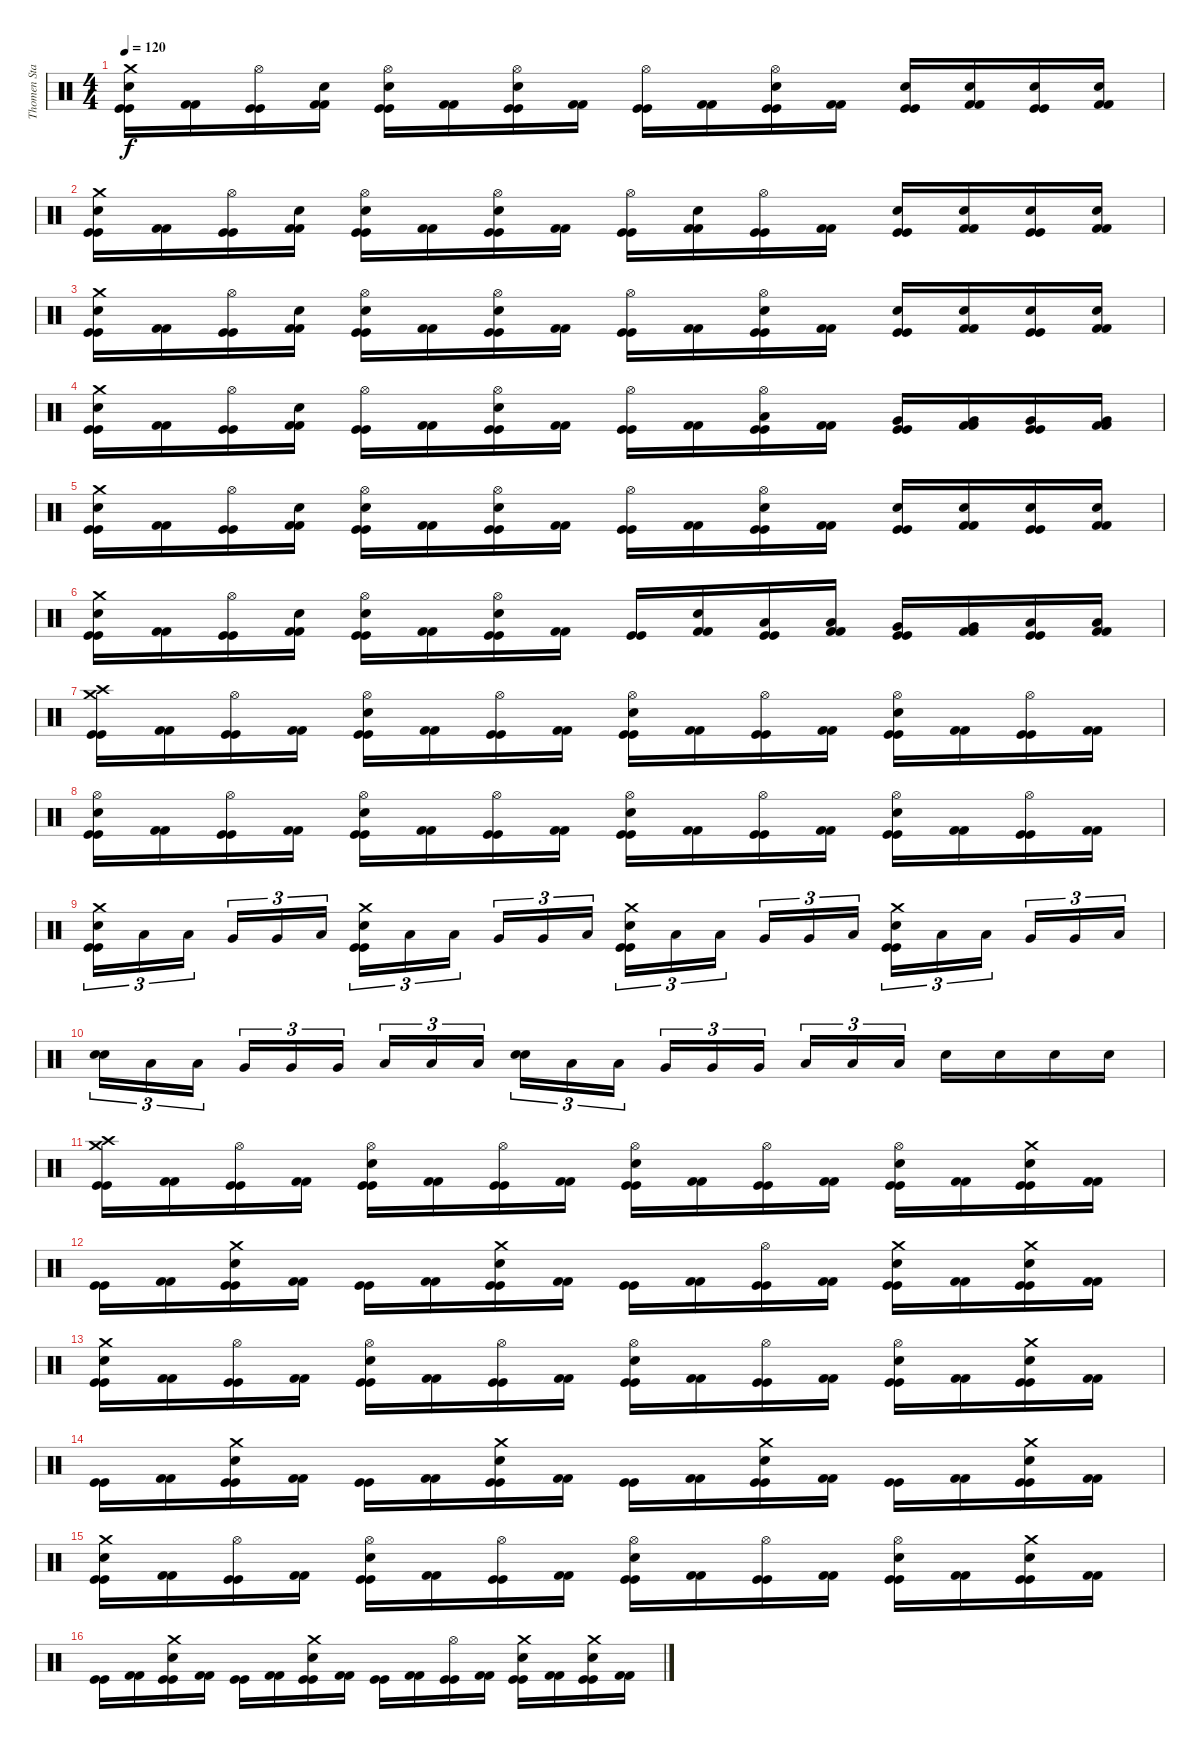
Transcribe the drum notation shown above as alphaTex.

\track ("Thomen Stauch" "Thomen Sta") {instrument percussion}
\staff {score}
\articulation defaults
\ts (4 4)
\tempo 120
\clef neutral
\ks c
("Crash medium (hit)" "Snare (hit) 2" "Kick (hit)" "Kick (hit)").16{dy f} ("Kick (hit) 2" "Kick (hit) 2").16 ("Hi-Hat (open)" "Kick (hit)" "Kick (hit)").16 ("Snare (hit) 2" "Kick (hit) 2" "Kick (hit) 2").16 ("Hi-Hat (open)" "Snare (hit) 2" "Kick (hit)" "Kick (hit)").16 ("Kick (hit) 2" "Kick (hit) 2").16 ("Hi-Hat (open)" "Snare (hit) 2" "Kick (hit)" "Kick (hit)").16 ("Kick (hit) 2" "Kick (hit) 2").16 ("Hi-Hat (open)" "Kick (hit)" "Kick (hit)").16 ("Kick (hit) 2" "Kick (hit) 2").16 ("Hi-Hat (open)" "Snare (hit) 2" "Kick (hit)" "Kick (hit)").16 ("Kick (hit) 2" "Kick (hit) 2").16 ("Snare (hit) 2" "Kick (hit)" "Kick (hit)").16 ("Snare (hit) 2" "Kick (hit) 2" "Kick (hit) 2").16 ("Snare (hit) 2" "Kick (hit)" "Kick (hit)").16 ("Snare (hit) 2" "Kick (hit) 2" "Kick (hit) 2").16 |
("Crash medium (hit)" "Snare (hit) 2" "Kick (hit)" "Kick (hit)").16 ("Kick (hit) 2" "Kick (hit) 2").16 ("Hi-Hat (open)" "Kick (hit)" "Kick (hit)").16 ("Snare (hit) 2" "Kick (hit) 2" "Kick (hit) 2").16 ("Hi-Hat (open)" "Snare (hit) 2" "Kick (hit)" "Kick (hit)").16 ("Kick (hit) 2" "Kick (hit) 2").16 ("Hi-Hat (open)" "Snare (hit) 2" "Kick (hit)" "Kick (hit)").16 ("Kick (hit) 2" "Kick (hit) 2").16 ("Hi-Hat (open)" "Kick (hit)" "Kick (hit)").16 ("Snare (hit) 2" "Kick (hit) 2" "Kick (hit) 2").16 ("Hi-Hat (open)" "Kick (hit)" "Kick (hit)").16 ("Kick (hit) 2" "Kick (hit) 2").16 ("Snare (hit) 2" "Kick (hit)" "Kick (hit)").16 ("Snare (hit) 2" "Kick (hit) 2" "Kick (hit) 2").16 ("Snare (hit) 2" "Kick (hit)" "Kick (hit)").16 ("Snare (hit) 2" "Kick (hit) 2" "Kick (hit) 2").16 |
("Crash medium (hit)" "Snare (hit) 2" "Kick (hit)" "Kick (hit)").16 ("Kick (hit) 2" "Kick (hit) 2").16 ("Hi-Hat (open)" "Kick (hit)" "Kick (hit)").16 ("Snare (hit) 2" "Kick (hit) 2" "Kick (hit) 2").16 ("Hi-Hat (open)" "Snare (hit) 2" "Kick (hit)" "Kick (hit)").16 ("Kick (hit) 2" "Kick (hit) 2").16 ("Hi-Hat (open)" "Snare (hit) 2" "Kick (hit)" "Kick (hit)").16 ("Kick (hit) 2" "Kick (hit) 2").16 ("Hi-Hat (open)" "Kick (hit)" "Kick (hit)").16 ("Kick (hit) 2" "Kick (hit) 2").16 ("Hi-Hat (open)" "Snare (hit) 2" "Kick (hit)" "Kick (hit)").16 ("Kick (hit) 2" "Kick (hit) 2").16 ("Snare (hit) 2" "Kick (hit)" "Kick (hit)").16 ("Snare (hit) 2" "Kick (hit) 2" "Kick (hit) 2").16 ("Snare (hit) 2" "Kick (hit)" "Kick (hit)").16 ("Snare (hit) 2" "Kick (hit) 2" "Kick (hit) 2").16 |
("Crash medium (hit)" "Snare (hit) 2" "Kick (hit)" "Kick (hit)").16 ("Kick (hit) 2" "Kick (hit) 2").16 ("Hi-Hat (open)" "Kick (hit)" "Kick (hit)").16 ("Snare (hit) 2" "Kick (hit) 2" "Kick (hit) 2").16 ("Hi-Hat (open)" "Kick (hit)" "Kick (hit)").16 ("Kick (hit) 2" "Kick (hit) 2").16 ("Hi-Hat (open)" "Snare (hit) 2" "Kick (hit)" "Kick (hit)").16 ("Kick (hit) 2" "Kick (hit) 2").16 ("Hi-Hat (open)" "Kick (hit)" "Kick (hit)").16 ("Kick (hit) 2" "Kick (hit) 2").16 ("Hi-Hat (open)" "Low Tom (hit)" "Kick (hit)" "Kick (hit)").16 ("Kick (hit) 2" "Kick (hit) 2").16 ("Very Low Tom (hit)" "Kick (hit)" "Kick (hit)").16 ("Very Low Tom (hit)" "Kick (hit) 2" "Kick (hit) 2").16 ("Very Low Tom (hit)" "Kick (hit)" "Kick (hit)").16 ("Very Low Tom (hit)" "Kick (hit) 2" "Kick (hit) 2").16 |
("Crash medium (hit)" "Snare (hit) 2" "Kick (hit)" "Kick (hit)").16 ("Kick (hit) 2" "Kick (hit) 2").16 ("Hi-Hat (open)" "Kick (hit)" "Kick (hit)").16 ("Snare (hit) 2" "Kick (hit) 2" "Kick (hit) 2").16 ("Hi-Hat (open)" "Snare (hit) 2" "Kick (hit)" "Kick (hit)").16 ("Kick (hit) 2" "Kick (hit) 2").16 ("Hi-Hat (open)" "Snare (hit) 2" "Kick (hit)" "Kick (hit)").16 ("Kick (hit) 2" "Kick (hit) 2").16 ("Hi-Hat (open)" "Kick (hit)" "Kick (hit)").16 ("Kick (hit) 2" "Kick (hit) 2").16 ("Hi-Hat (open)" "Snare (hit) 2" "Kick (hit)" "Kick (hit)").16 ("Kick (hit) 2" "Kick (hit) 2").16 ("Snare (hit) 2" "Kick (hit)" "Kick (hit)").16 ("Snare (hit) 2" "Kick (hit) 2" "Kick (hit) 2").16 ("Snare (hit) 2" "Kick (hit)" "Kick (hit)").16 ("Snare (hit) 2" "Kick (hit) 2" "Kick (hit) 2").16 |
("Crash medium (hit)" "Snare (hit) 2" "Kick (hit)" "Kick (hit)").16 ("Kick (hit) 2" "Kick (hit) 2").16 ("Hi-Hat (open)" "Kick (hit)" "Kick (hit)").16 ("Snare (hit) 2" "Kick (hit) 2" "Kick (hit) 2").16 ("Hi-Hat (open)" "Snare (hit) 2" "Kick (hit)" "Kick (hit)").16 ("Kick (hit) 2" "Kick (hit) 2").16 ("Hi-Hat (open)" "Snare (hit) 2" "Kick (hit)" "Kick (hit)").16 ("Kick (hit) 2" "Kick (hit) 2").16 ("Kick (hit)" "Kick (hit)").16 ("Snare (hit) 2" "Kick (hit) 2" "Kick (hit) 2").16 ("Low Tom (hit)" "Kick (hit)" "Kick (hit)").16 ("Low Tom (hit)" "Kick (hit) 2" "Kick (hit) 2").16 ("Very Low Tom (hit)" "Kick (hit)" "Kick (hit)").16 ("Very Low Tom (hit)" "Kick (hit) 2" "Kick (hit) 2").16 ("Low Floor Tom (hit)" "Kick (hit)" "Kick (hit)").16 ("Low Floor Tom (hit)" "Kick (hit) 2" "Kick (hit) 2").16 |
("Crash medium (hit)" "Crash high (hit)" "Kick (hit)" "Kick (hit)").16 ("Kick (hit) 2" "Kick (hit) 2").16 ("Hi-Hat (open)" "Kick (hit)" "Kick (hit)").16 ("Kick (hit) 2" "Kick (hit) 2").16 ("Hi-Hat (open)" "Snare (hit) 2" "Kick (hit)" "Kick (hit)").16 ("Kick (hit) 2" "Kick (hit) 2").16 ("Hi-Hat (open)" "Kick (hit)" "Kick (hit)").16 ("Kick (hit) 2" "Kick (hit) 2").16 ("Hi-Hat (open)" "Snare (hit) 2" "Kick (hit)" "Kick (hit)").16 ("Kick (hit) 2" "Kick (hit) 2").16 ("Hi-Hat (open)" "Kick (hit)" "Kick (hit)").16 ("Kick (hit) 2" "Kick (hit) 2").16 ("Hi-Hat (open)" "Snare (hit) 2" "Kick (hit)" "Kick (hit)").16 ("Kick (hit) 2" "Kick (hit) 2").16 ("Hi-Hat (open)" "Kick (hit)" "Kick (hit)").16 ("Kick (hit) 2" "Kick (hit) 2").16 |
("Hi-Hat (open)" "Snare (hit) 2" "Kick (hit)" "Kick (hit)").16 ("Kick (hit) 2" "Kick (hit) 2").16 ("Hi-Hat (open)" "Kick (hit)" "Kick (hit)").16 ("Kick (hit) 2" "Kick (hit) 2").16 ("Hi-Hat (open)" "Snare (hit) 2" "Kick (hit)" "Kick (hit)").16 ("Kick (hit) 2" "Kick (hit) 2").16 ("Hi-Hat (open)" "Kick (hit)" "Kick (hit)").16 ("Kick (hit) 2" "Kick (hit) 2").16 ("Hi-Hat (open)" "Snare (hit) 2" "Kick (hit)" "Kick (hit)").16 ("Kick (hit) 2" "Kick (hit) 2").16 ("Hi-Hat (open)" "Kick (hit)" "Kick (hit)").16 ("Kick (hit) 2" "Kick (hit) 2").16 ("Hi-Hat (open)" "Snare (hit) 2" "Kick (hit)" "Kick (hit)").16 ("Kick (hit) 2" "Kick (hit) 2").16 ("Hi-Hat (open)" "Kick (hit)" "Kick (hit)").16 ("Kick (hit) 2" "Kick (hit) 2").16 |
("Crash medium (hit)" "Snare (hit) 2" "Kick (hit)" "Kick (hit)").16{tu (3 2)} "Low Tom (hit)".16{tu (3 2)} "Low Tom (hit)".16{tu (3 2)} "Very Low Tom (hit)".16{tu (3 2)} "Very Low Tom (hit)".16{tu (3 2)} "Low Floor Tom (hit)".16{tu (3 2)} ("Crash medium (hit)" "Snare (hit) 2" "Kick (hit)" "Kick (hit)").16{tu (3 2)} "Low Tom (hit)".16{tu (3 2)} "Low Tom (hit)".16{tu (3 2)} "Very Low Tom (hit)".16{tu (3 2)} "Very Low Tom (hit)".16{tu (3 2)} "Low Floor Tom (hit)".16{tu (3 2)} ("Crash medium (hit)" "Snare (hit) 2" "Kick (hit)" "Kick (hit)").16{tu (3 2)} "Low Tom (hit)".16{tu (3 2)} "Low Tom (hit)".16{tu (3 2)} "Very Low Tom (hit)".16{tu (3 2)} "Very Low Tom (hit)".16{tu (3 2)} "Low Floor Tom (hit)".16{tu (3 2)} ("Crash medium (hit)" "Snare (hit) 2" "Kick (hit)" "Kick (hit)").16{tu (3 2)} "Low Tom (hit)".16{tu (3 2)} "Low Tom (hit)".16{tu (3 2)} "Very Low Tom (hit)".16{tu (3 2)} "Very Low Tom (hit)".16{tu (3 2)} "Low Floor Tom (hit)".16{tu (3 2)} |
("Snare (hit) 2" "Snare (hit) 2").16{tu (3 2)} "Low Tom (hit)".16{tu (3 2)} "Low Tom (hit)".16{tu (3 2)} "Very Low Tom (hit)".16{tu (3 2)} "Very Low Tom (hit)".16{tu (3 2)} "Very Low Tom (hit)".16{tu (3 2)} "Low Floor Tom (hit)".16{tu (3 2)} "Low Floor Tom (hit)".16{tu (3 2)} "Low Floor Tom (hit)".16{tu (3 2)} ("Snare (hit) 2" "Snare (hit) 2").16{tu (3 2)} "Low Tom (hit)".16{tu (3 2)} "Low Tom (hit)".16{tu (3 2)} "Very Low Tom (hit)".16{tu (3 2)} "Very Low Tom (hit)".16{tu (3 2)} "Very Low Tom (hit)".16{tu (3 2)} "Low Floor Tom (hit)".16{tu (3 2)} "Low Floor Tom (hit)".16{tu (3 2)} "Low Floor Tom (hit)".16{tu (3 2)} "Snare (hit) 2".16 "Snare (hit) 2".16 "Snare (hit) 2".16 "Snare (hit) 2".16 |
("Crash medium (hit)" "Crash high (hit)" "Kick (hit)" "Kick (hit)").16 ("Kick (hit) 2" "Kick (hit) 2").16 ("Hi-Hat (open)" "Kick (hit)" "Kick (hit)").16 ("Kick (hit) 2" "Kick (hit) 2").16 ("Hi-Hat (open)" "Snare (hit) 2" "Kick (hit)" "Kick (hit)").16 ("Kick (hit) 2" "Kick (hit) 2").16 ("Hi-Hat (open)" "Kick (hit)" "Kick (hit)").16 ("Kick (hit) 2" "Kick (hit) 2").16 ("Hi-Hat (open)" "Snare (hit) 2" "Kick (hit)" "Kick (hit)").16 ("Kick (hit) 2" "Kick (hit) 2").16 ("Hi-Hat (open)" "Kick (hit)" "Kick (hit)").16 ("Kick (hit) 2" "Kick (hit) 2").16 ("Hi-Hat (open)" "Snare (hit) 2" "Kick (hit)" "Kick (hit)").16 ("Kick (hit) 2" "Kick (hit) 2").16 ("Crash medium (hit)" "Snare (hit) 2" "Kick (hit)" "Kick (hit)").16 ("Kick (hit) 2" "Kick (hit) 2").16 |
("Kick (hit)" "Kick (hit)").16 ("Kick (hit) 2" "Kick (hit) 2").16 ("Crash medium (hit)" "Snare (hit) 2" "Kick (hit)" "Kick (hit)").16 ("Kick (hit) 2" "Kick (hit) 2").16 ("Kick (hit)" "Kick (hit)").16 ("Kick (hit) 2" "Kick (hit) 2").16 ("Crash medium (hit)" "Snare (hit) 2" "Kick (hit)" "Kick (hit)").16 ("Kick (hit) 2" "Kick (hit) 2").16 ("Kick (hit)" "Kick (hit)").16 ("Kick (hit) 2" "Kick (hit) 2").16 ("Hi-Hat (open)" "Kick (hit)" "Kick (hit)").16 ("Kick (hit) 2" "Kick (hit) 2").16 ("Crash medium (hit)" "Snare (hit) 2" "Kick (hit)" "Kick (hit)").16 ("Kick (hit) 2" "Kick (hit) 2").16 ("Crash medium (hit)" "Snare (hit) 2" "Kick (hit)" "Kick (hit)").16 ("Kick (hit) 2" "Kick (hit) 2").16 |
("Crash medium (hit)" "Snare (hit) 2" "Kick (hit)" "Kick (hit)").16 ("Kick (hit) 2" "Kick (hit) 2").16 ("Hi-Hat (open)" "Kick (hit)" "Kick (hit)").16 ("Kick (hit) 2" "Kick (hit) 2").16 ("Hi-Hat (open)" "Snare (hit) 2" "Kick (hit)" "Kick (hit)").16 ("Kick (hit) 2" "Kick (hit) 2").16 ("Hi-Hat (open)" "Kick (hit)" "Kick (hit)").16 ("Kick (hit) 2" "Kick (hit) 2").16 ("Hi-Hat (open)" "Snare (hit) 2" "Kick (hit)" "Kick (hit)").16 ("Kick (hit) 2" "Kick (hit) 2").16 ("Hi-Hat (open)" "Kick (hit)" "Kick (hit)").16 ("Kick (hit) 2" "Kick (hit) 2").16 ("Hi-Hat (open)" "Snare (hit) 2" "Kick (hit)" "Kick (hit)").16 ("Kick (hit) 2" "Kick (hit) 2").16 ("Crash medium (hit)" "Snare (hit) 2" "Kick (hit)" "Kick (hit)").16 ("Kick (hit) 2" "Kick (hit) 2").16 |
("Kick (hit)" "Kick (hit)").16 ("Kick (hit) 2" "Kick (hit) 2").16 ("Crash medium (hit)" "Snare (hit) 2" "Kick (hit)" "Kick (hit)").16 ("Kick (hit) 2" "Kick (hit) 2").16 ("Kick (hit)" "Kick (hit)").16 ("Kick (hit) 2" "Kick (hit) 2").16 ("Crash medium (hit)" "Snare (hit) 2" "Kick (hit)" "Kick (hit)").16 ("Kick (hit) 2" "Kick (hit) 2").16 ("Kick (hit)" "Kick (hit)").16 ("Kick (hit) 2" "Kick (hit) 2").16 ("Crash medium (hit)" "Snare (hit) 2" "Kick (hit)" "Kick (hit)").16 ("Kick (hit) 2" "Kick (hit) 2").16 ("Kick (hit)" "Kick (hit)").16 ("Kick (hit) 2" "Kick (hit) 2").16 ("Crash medium (hit)" "Snare (hit) 2" "Kick (hit)" "Kick (hit)").16 ("Kick (hit) 2" "Kick (hit) 2").16 |
("Crash medium (hit)" "Snare (hit) 2" "Kick (hit)" "Kick (hit)").16 ("Kick (hit) 2" "Kick (hit) 2").16 ("Hi-Hat (open)" "Kick (hit)" "Kick (hit)").16 ("Kick (hit) 2" "Kick (hit) 2").16 ("Hi-Hat (open)" "Snare (hit) 2" "Kick (hit)" "Kick (hit)").16 ("Kick (hit) 2" "Kick (hit) 2").16 ("Hi-Hat (open)" "Kick (hit)" "Kick (hit)").16 ("Kick (hit) 2" "Kick (hit) 2").16 ("Hi-Hat (open)" "Snare (hit) 2" "Kick (hit)" "Kick (hit)").16 ("Kick (hit) 2" "Kick (hit) 2").16 ("Hi-Hat (open)" "Kick (hit)" "Kick (hit)").16 ("Kick (hit) 2" "Kick (hit) 2").16 ("Hi-Hat (open)" "Snare (hit) 2" "Kick (hit)" "Kick (hit)").16 ("Kick (hit) 2" "Kick (hit) 2").16 ("Crash medium (hit)" "Snare (hit) 2" "Kick (hit)" "Kick (hit)").16 ("Kick (hit) 2" "Kick (hit) 2").16 |
("Kick (hit)" "Kick (hit)").16 ("Kick (hit) 2" "Kick (hit) 2").16 ("Crash medium (hit)" "Snare (hit) 2" "Kick (hit)" "Kick (hit)").16 ("Kick (hit) 2" "Kick (hit) 2").16 ("Kick (hit)" "Kick (hit)").16 ("Kick (hit) 2" "Kick (hit) 2").16 ("Crash medium (hit)" "Snare (hit) 2" "Kick (hit)" "Kick (hit)").16 ("Kick (hit) 2" "Kick (hit) 2").16 ("Kick (hit)" "Kick (hit)").16 ("Kick (hit) 2" "Kick (hit) 2").16 ("Hi-Hat (open)" "Kick (hit)" "Kick (hit)").16 ("Kick (hit) 2" "Kick (hit) 2").16 ("Crash medium (hit)" "Snare (hit) 2" "Kick (hit)" "Kick (hit)").16 ("Kick (hit) 2" "Kick (hit) 2").16 ("Crash medium (hit)" "Snare (hit) 2" "Kick (hit)" "Kick (hit)").16 ("Kick (hit) 2" "Kick (hit) 2").16
